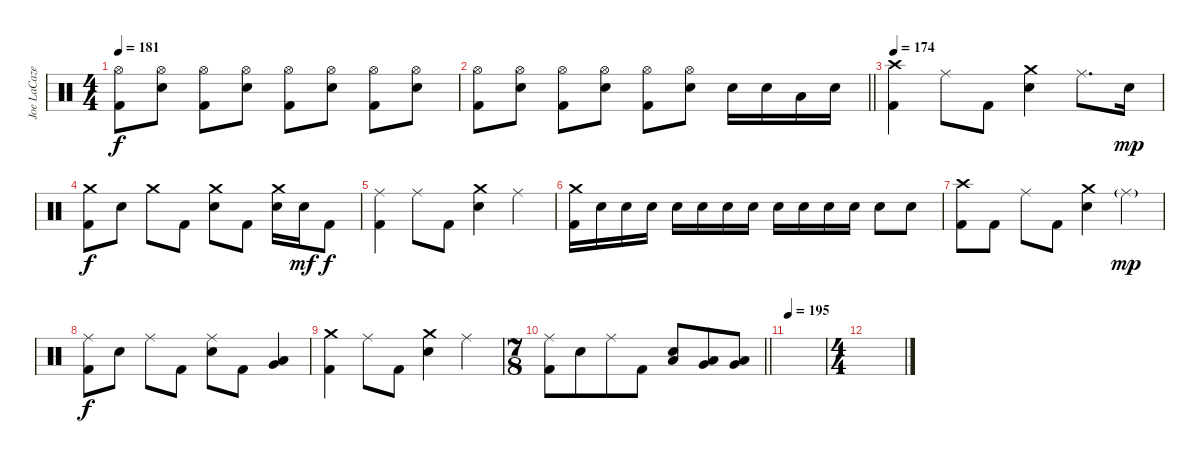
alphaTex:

\track ("Joe LaCaze" "Joe LaCaze") {instrument percussion}
\staff {score}
\articulation defaults
\ts (4 4)
\tempo 181
\clef neutral
\ks c
("Hi-Hat (open)" "Kick (hit) 2").8{dy f} ("Hi-Hat (open)" "Electric Snare (hit)").8 ("Hi-Hat (open)" "Kick (hit) 2").8 ("Hi-Hat (open)" "Electric Snare (hit)").8 ("Hi-Hat (open)" "Kick (hit) 2").8 ("Hi-Hat (open)" "Electric Snare (hit)").8 ("Hi-Hat (open)" "Kick (hit) 2").8 ("Hi-Hat (open)" "Electric Snare (hit)").8 |
\barLineRight lightlight
("Hi-Hat (open)" "Kick (hit) 2").8 ("Hi-Hat (open)" "Electric Snare (hit)").8 ("Hi-Hat (open)" "Kick (hit) 2").8 ("Hi-Hat (open)" "Electric Snare (hit)").8 ("Hi-Hat (open)" "Kick (hit) 2").8 ("Hi-Hat (open)" "Electric Snare (hit)").8 "Electric Snare (hit)".16 "Electric Snare (hit)".16 "Low Tom (hit)".16 "Electric Snare (hit)".16 |
\section ("" "")
\tempo 174
("Crash high (hit)" "Kick (hit) 2").4 "Ride (middle)".8 "Kick (hit) 2".8 ("Crash medium (hit)" "Electric Snare (hit)").4 "Ride (middle)".8{d} "Electric Snare (hit)".16{dy mp} |
("Crash medium (hit)" "Kick (hit) 2").8{dy f} "Electric Snare (hit)".8 "Crash medium (hit)".8 "Kick (hit) 2".8 ("Crash medium (hit)" "Electric Snare (hit)").8 "Kick (hit) 2".8 ("Crash medium (hit)" "Electric Snare (hit)").16 "Electric Snare (hit)".16{dy mf} "Kick (hit) 2".8{dy f} |
("Ride (middle)" "Kick (hit) 2").4 "Ride (middle)".8 "Kick (hit) 2".8 ("Crash medium (hit)" "Electric Snare (hit)").4 "Ride (middle)".4 |
("Crash medium (hit)" "Kick (hit) 2").16 "Electric Snare (hit)".16 "Electric Snare (hit)".16 "Electric Snare (hit)".16 "Electric Snare (hit)".16 "Electric Snare (hit)".16 "Electric Snare (hit)".16 "Electric Snare (hit)".16 "Electric Snare (hit)".16 "Electric Snare (hit)".16 "Electric Snare (hit)".16 "Electric Snare (hit)".16 "Electric Snare (hit)".8 "Electric Snare (hit)".8 |
("Crash high (hit)" "Kick (hit) 2").8 "Kick (hit) 2".8 "Ride (middle)".8 "Kick (hit) 2".8 ("Crash medium (hit)" "Electric Snare (hit)").4 "Ride (middle)"{g}.4{dy mp} |
("Ride (middle)" "Kick (hit) 2").8{dy f} "Electric Snare (hit)".8 "Ride (middle)".8 "Kick (hit) 2".8 ("Ride (middle)" "Electric Snare (hit)").8 "Kick (hit) 2".8 ("Very Low Tom (hit)" "Low Floor Tom (hit)").4 |
("Crash medium (hit)" "Kick (hit) 2").4 "Ride (middle)".8 "Kick (hit) 2".8 ("Crash medium (hit)" "Electric Snare (hit)").4 "Ride (middle)".4 |
\ts (7 8)
\barLineRight lightlight
("Ride (middle)" "Kick (hit) 2").8 "Electric Snare (hit)".8 "Ride (middle)".8 "Kick (hit) 2".8 ("Electric Snare (hit)" "Low Floor Tom (hit)").8 ("Very Low Tom (hit)" "Low Floor Tom (hit)").8 ("Very Low Tom (hit)" "Low Floor Tom (hit)").8 |
\section ("" "")
\tempo 195
|
\ts (4 4)
